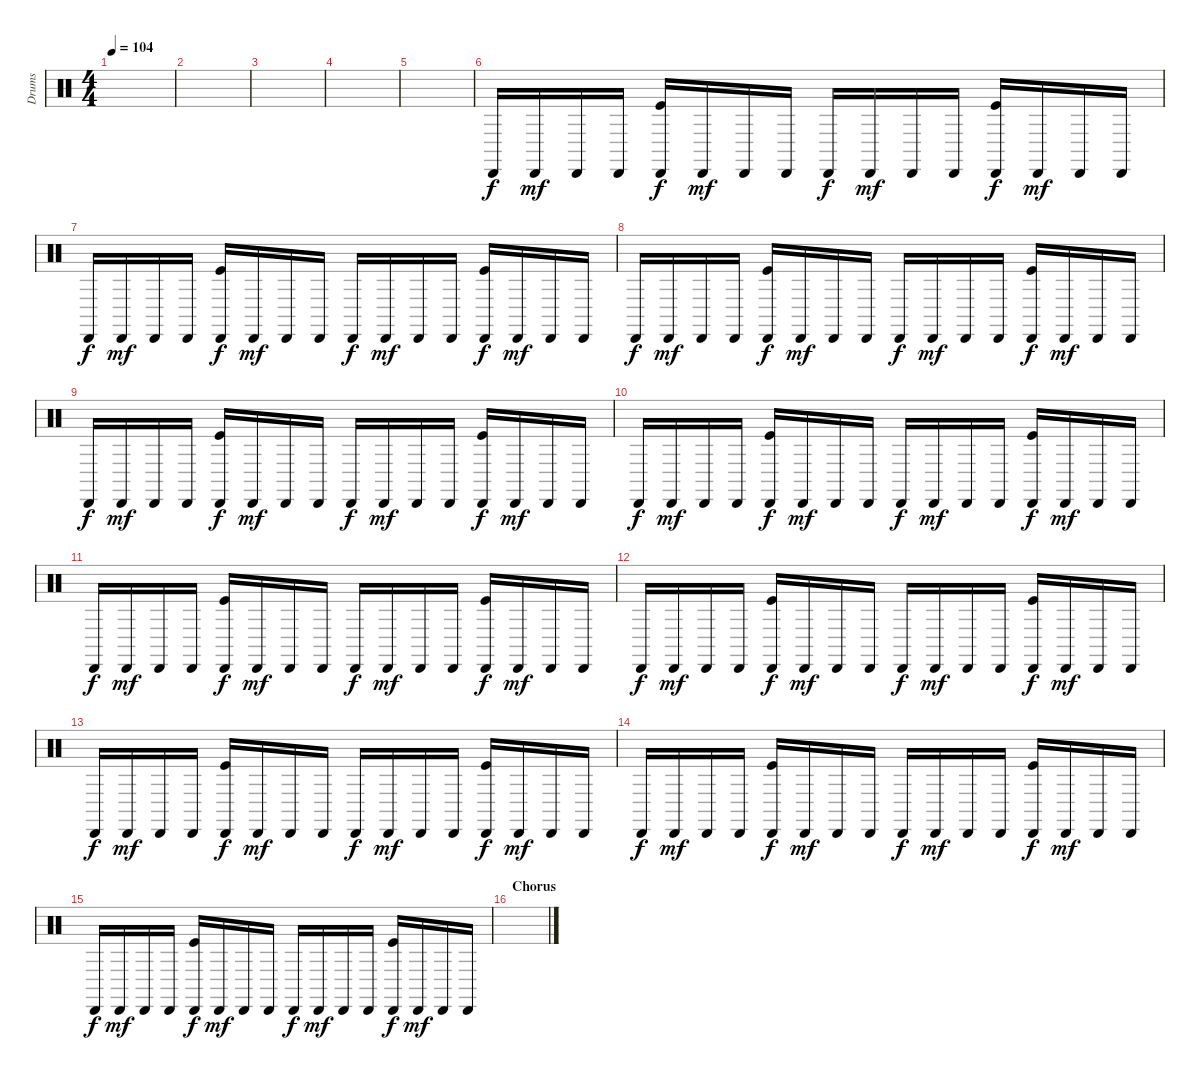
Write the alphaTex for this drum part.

\track ("Drums" "Drums") {instrument percussion}
\staff {score}
\articulation defaults
\ts (4 4)
\tempo 104
\clef neutral
\ks c
|
|
|
|
|
"Cabasa (hit)".16 "Cabasa (hit)".16{dy mf} "Cabasa (hit)".16 "Cabasa (hit)".16 ("Cabasa (hit)" "Kick (hit)").16{dy f} "Cabasa (hit)".16{dy mf} "Cabasa (hit)".16 "Cabasa (hit)".16 "Cabasa (hit)".16{dy f} "Cabasa (hit)".16{dy mf} "Cabasa (hit)".16 "Cabasa (hit)".16 ("Cabasa (hit)" "Kick (hit)").16{dy f} "Cabasa (hit)".16{dy mf} "Cabasa (hit)".16 "Cabasa (hit)".16 |
"Cabasa (hit)".16{dy f} "Cabasa (hit)".16{dy mf} "Cabasa (hit)".16 "Cabasa (hit)".16 ("Cabasa (hit)" "Kick (hit)").16{dy f} "Cabasa (hit)".16{dy mf} "Cabasa (hit)".16 "Cabasa (hit)".16 "Cabasa (hit)".16{dy f} "Cabasa (hit)".16{dy mf} "Cabasa (hit)".16 "Cabasa (hit)".16 ("Cabasa (hit)" "Kick (hit)").16{dy f} "Cabasa (hit)".16{dy mf} "Cabasa (hit)".16 "Cabasa (hit)".16 |
"Cabasa (hit)".16{dy f} "Cabasa (hit)".16{dy mf} "Cabasa (hit)".16 "Cabasa (hit)".16 ("Cabasa (hit)" "Kick (hit)").16{dy f} "Cabasa (hit)".16{dy mf} "Cabasa (hit)".16 "Cabasa (hit)".16 "Cabasa (hit)".16{dy f} "Cabasa (hit)".16{dy mf} "Cabasa (hit)".16 "Cabasa (hit)".16 ("Cabasa (hit)" "Kick (hit)").16{dy f} "Cabasa (hit)".16{dy mf} "Cabasa (hit)".16 "Cabasa (hit)".16 |
"Cabasa (hit)".16{dy f} "Cabasa (hit)".16{dy mf} "Cabasa (hit)".16 "Cabasa (hit)".16 ("Cabasa (hit)" "Kick (hit)").16{dy f} "Cabasa (hit)".16{dy mf} "Cabasa (hit)".16 "Cabasa (hit)".16 "Cabasa (hit)".16{dy f} "Cabasa (hit)".16{dy mf} "Cabasa (hit)".16 "Cabasa (hit)".16 ("Cabasa (hit)" "Kick (hit)").16{dy f} "Cabasa (hit)".16{dy mf} "Cabasa (hit)".16 "Cabasa (hit)".16 |
"Cabasa (hit)".16{dy f} "Cabasa (hit)".16{dy mf} "Cabasa (hit)".16 "Cabasa (hit)".16 ("Cabasa (hit)" "Kick (hit)").16{dy f} "Cabasa (hit)".16{dy mf} "Cabasa (hit)".16 "Cabasa (hit)".16 "Cabasa (hit)".16{dy f} "Cabasa (hit)".16{dy mf} "Cabasa (hit)".16 "Cabasa (hit)".16 ("Cabasa (hit)" "Kick (hit)").16{dy f} "Cabasa (hit)".16{dy mf} "Cabasa (hit)".16 "Cabasa (hit)".16 |
"Cabasa (hit)".16{dy f} "Cabasa (hit)".16{dy mf} "Cabasa (hit)".16 "Cabasa (hit)".16 ("Cabasa (hit)" "Kick (hit)").16{dy f} "Cabasa (hit)".16{dy mf} "Cabasa (hit)".16 "Cabasa (hit)".16 "Cabasa (hit)".16{dy f} "Cabasa (hit)".16{dy mf} "Cabasa (hit)".16 "Cabasa (hit)".16 ("Cabasa (hit)" "Kick (hit)").16{dy f} "Cabasa (hit)".16{dy mf} "Cabasa (hit)".16 "Cabasa (hit)".16 |
"Cabasa (hit)".16{dy f} "Cabasa (hit)".16{dy mf} "Cabasa (hit)".16 "Cabasa (hit)".16 ("Cabasa (hit)" "Kick (hit)").16{dy f} "Cabasa (hit)".16{dy mf} "Cabasa (hit)".16 "Cabasa (hit)".16 "Cabasa (hit)".16{dy f} "Cabasa (hit)".16{dy mf} "Cabasa (hit)".16 "Cabasa (hit)".16 ("Cabasa (hit)" "Kick (hit)").16{dy f} "Cabasa (hit)".16{dy mf} "Cabasa (hit)".16 "Cabasa (hit)".16 |
"Cabasa (hit)".16{dy f} "Cabasa (hit)".16{dy mf} "Cabasa (hit)".16 "Cabasa (hit)".16 ("Cabasa (hit)" "Kick (hit)").16{dy f} "Cabasa (hit)".16{dy mf} "Cabasa (hit)".16 "Cabasa (hit)".16 "Cabasa (hit)".16{dy f} "Cabasa (hit)".16{dy mf} "Cabasa (hit)".16 "Cabasa (hit)".16 ("Cabasa (hit)" "Kick (hit)").16{dy f} "Cabasa (hit)".16{dy mf} "Cabasa (hit)".16 "Cabasa (hit)".16 |
"Cabasa (hit)".16{dy f} "Cabasa (hit)".16{dy mf} "Cabasa (hit)".16 "Cabasa (hit)".16 ("Cabasa (hit)" "Kick (hit)").16{dy f} "Cabasa (hit)".16{dy mf} "Cabasa (hit)".16 "Cabasa (hit)".16 "Cabasa (hit)".16{dy f} "Cabasa (hit)".16{dy mf} "Cabasa (hit)".16 "Cabasa (hit)".16 ("Cabasa (hit)" "Kick (hit)").16{dy f} "Cabasa (hit)".16{dy mf} "Cabasa (hit)".16 "Cabasa (hit)".16 |
"Cabasa (hit)".16{dy f} "Cabasa (hit)".16{dy mf} "Cabasa (hit)".16 "Cabasa (hit)".16 ("Cabasa (hit)" "Kick (hit)").16{dy f} "Cabasa (hit)".16{dy mf} "Cabasa (hit)".16 "Cabasa (hit)".16 "Cabasa (hit)".16{dy f} "Cabasa (hit)".16{dy mf} "Cabasa (hit)".16 "Cabasa (hit)".16 ("Cabasa (hit)" "Kick (hit)").16{dy f} "Cabasa (hit)".16{dy mf} "Cabasa (hit)".16 "Cabasa (hit)".16 |
\section ("" "Chorus")
